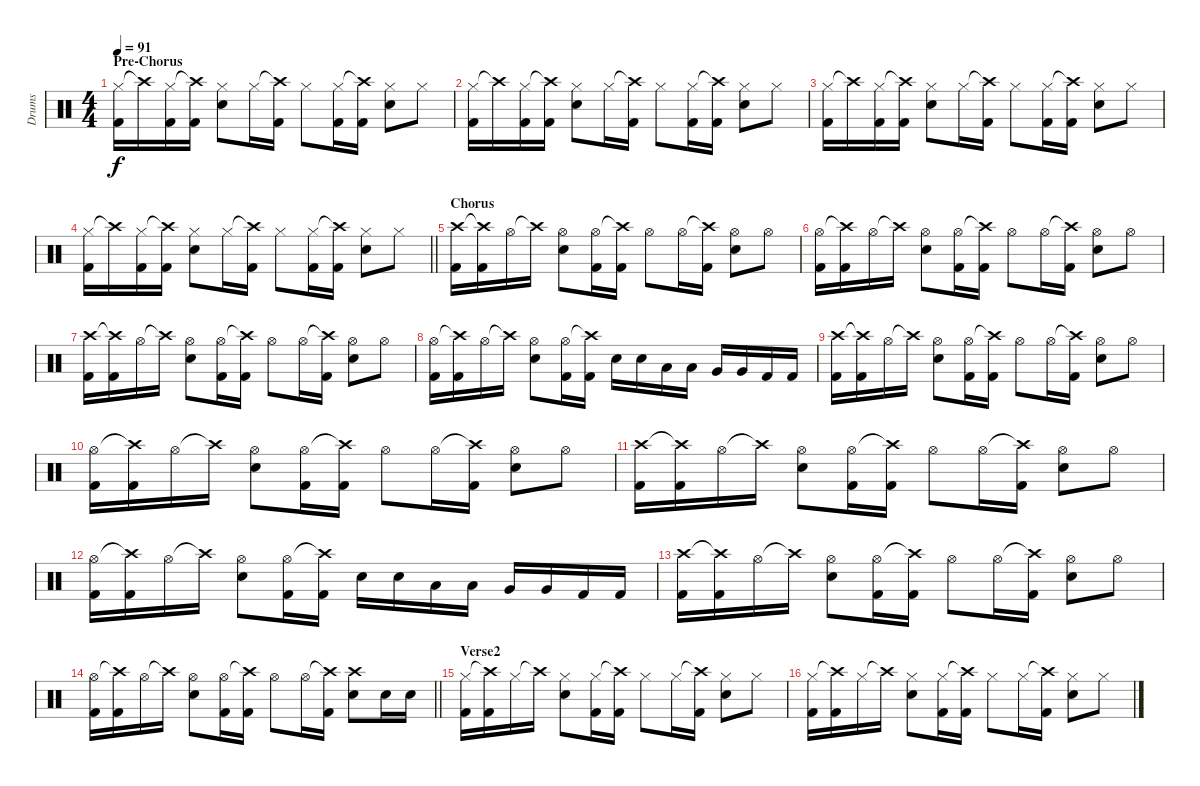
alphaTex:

\track ("Drums" "Drums") {instrument percussion}
\staff {score}
\articulation defaults
\ts (4 4)
\section ("" "Pre-Chorus")
\tempo 91
\clef neutral
\ks c
("Hi-Hat (closed)" "Kick (hit) 2").16{dy f} "Crash high (hit)"{t}.16 ("Hi-Hat (closed)" "Kick (hit) 2").16 ("Crash high (hit)"{t} "Kick (hit) 2").16 ("Hi-Hat (closed)" "Electric Snare (hit)").8 "Hi-Hat (closed)".16 ("Crash high (hit)"{t} "Kick (hit) 2").16 "Hi-Hat (closed)".8 ("Hi-Hat (closed)" "Kick (hit) 2").16 ("Crash high (hit)"{t} "Kick (hit) 2").16 ("Hi-Hat (closed)" "Electric Snare (hit)").8 "Hi-Hat (closed)".8 |
("Hi-Hat (closed)" "Kick (hit) 2").16 "Crash high (hit)"{t}.16 ("Hi-Hat (closed)" "Kick (hit) 2").16 ("Crash high (hit)"{t} "Kick (hit) 2").16 ("Hi-Hat (closed)" "Electric Snare (hit)").8 "Hi-Hat (closed)".16 ("Crash high (hit)"{t} "Kick (hit) 2").16 "Hi-Hat (closed)".8 ("Hi-Hat (closed)" "Kick (hit) 2").16 ("Crash high (hit)"{t} "Kick (hit) 2").16 ("Hi-Hat (closed)" "Electric Snare (hit)").8 "Hi-Hat (closed)".8 |
("Hi-Hat (closed)" "Kick (hit) 2").16 "Crash high (hit)"{t}.16 ("Hi-Hat (closed)" "Kick (hit) 2").16 ("Crash high (hit)"{t} "Kick (hit) 2").16 ("Hi-Hat (closed)" "Electric Snare (hit)").8 "Hi-Hat (closed)".16 ("Crash high (hit)"{t} "Kick (hit) 2").16 "Hi-Hat (closed)".8 ("Hi-Hat (closed)" "Kick (hit) 2").16 ("Crash high (hit)"{t} "Kick (hit) 2").16 ("Hi-Hat (closed)" "Electric Snare (hit)").8 "Hi-Hat (closed)".8 |
\barLineRight lightlight
("Hi-Hat (closed)" "Kick (hit) 2").16 "Crash high (hit)"{t}.16 ("Hi-Hat (closed)" "Kick (hit) 2").16 ("Crash high (hit)"{t} "Kick (hit) 2").16 ("Hi-Hat (closed)" "Electric Snare (hit)").8 "Hi-Hat (closed)".16 ("Crash high (hit)"{t} "Kick (hit) 2").16 "Hi-Hat (closed)".8 ("Hi-Hat (closed)" "Kick (hit) 2").16 ("Crash high (hit)"{t} "Kick (hit) 2").16 ("Hi-Hat (closed)" "Electric Snare (hit)").8 "Hi-Hat (closed)".8 |
\section ("" "Chorus")
("Crash high (hit)" "Kick (hit) 2").16 ("Crash high (hit)"{t} "Kick (hit) 2").16 "Hi-Hat (open)".16 "Crash high (hit)"{t}.16 ("Hi-Hat (open)" "Electric Snare (hit)").8 ("Hi-Hat (open)" "Kick (hit) 2").16 ("Crash high (hit)"{t} "Kick (hit) 2").16 "Hi-Hat (open)".8 "Hi-Hat (open)".16 ("Crash high (hit)"{t} "Kick (hit) 2").16 ("Hi-Hat (open)" "Electric Snare (hit)").8 "Hi-Hat (open)".8 |
("Hi-Hat (open)" "Kick (hit) 2").16 ("Crash high (hit)"{t} "Kick (hit) 2").16 "Hi-Hat (open)".16 "Crash high (hit)"{t}.16 ("Hi-Hat (open)" "Electric Snare (hit)").8 ("Hi-Hat (open)" "Kick (hit) 2").16 ("Crash high (hit)"{t} "Kick (hit) 2").16 "Hi-Hat (open)".8 "Hi-Hat (open)".16 ("Crash high (hit)"{t} "Kick (hit) 2").16 ("Hi-Hat (open)" "Electric Snare (hit)").8 "Hi-Hat (open)".8 |
("Crash high (hit)" "Kick (hit) 2").16 ("Crash high (hit)"{t} "Kick (hit) 2").16 "Hi-Hat (open)".16 "Crash high (hit)"{t}.16 ("Hi-Hat (open)" "Electric Snare (hit)").8 ("Hi-Hat (open)" "Kick (hit) 2").16 ("Crash high (hit)"{t} "Kick (hit) 2").16 "Hi-Hat (open)".8 "Hi-Hat (open)".16 ("Crash high (hit)"{t} "Kick (hit) 2").16 ("Hi-Hat (open)" "Electric Snare (hit)").8 "Hi-Hat (open)".8 |
("Hi-Hat (open)" "Kick (hit) 2").16 ("Crash high (hit)"{t} "Kick (hit) 2").16 "Hi-Hat (open)".16 "Crash high (hit)"{t}.16 ("Hi-Hat (open)" "Electric Snare (hit)").8 ("Hi-Hat (open)" "Kick (hit) 2").16 ("Crash high (hit)"{t} "Kick (hit) 2").16 "Electric Snare (hit)".16 "Electric Snare (hit)".16 "Low Tom (hit)".16 "Low Tom (hit)".16 "Very Low Tom (hit)".16 "Very Low Tom (hit)".16 "Kick (hit) 2".16 "Kick (hit) 2".16 |
("Crash high (hit)" "Kick (hit) 2").16 ("Crash high (hit)"{t} "Kick (hit) 2").16 "Hi-Hat (open)".16 "Crash high (hit)"{t}.16 ("Hi-Hat (open)" "Electric Snare (hit)").8 ("Hi-Hat (open)" "Kick (hit) 2").16 ("Crash high (hit)"{t} "Kick (hit) 2").16 "Hi-Hat (open)".8 "Hi-Hat (open)".16 ("Crash high (hit)"{t} "Kick (hit) 2").16 ("Hi-Hat (open)" "Electric Snare (hit)").8 "Hi-Hat (open)".8 |
("Hi-Hat (open)" "Kick (hit) 2").16 ("Crash high (hit)"{t} "Kick (hit) 2").16 "Hi-Hat (open)".16 "Crash high (hit)"{t}.16 ("Hi-Hat (open)" "Electric Snare (hit)").8 ("Hi-Hat (open)" "Kick (hit) 2").16 ("Crash high (hit)"{t} "Kick (hit) 2").16 "Hi-Hat (open)".8 "Hi-Hat (open)".16 ("Crash high (hit)"{t} "Kick (hit) 2").16 ("Hi-Hat (open)" "Electric Snare (hit)").8 "Hi-Hat (open)".8 |
("Crash high (hit)" "Kick (hit) 2").16 ("Crash high (hit)"{t} "Kick (hit) 2").16 "Hi-Hat (open)".16 "Crash high (hit)"{t}.16 ("Hi-Hat (open)" "Electric Snare (hit)").8 ("Hi-Hat (open)" "Kick (hit) 2").16 ("Crash high (hit)"{t} "Kick (hit) 2").16 "Hi-Hat (open)".8 "Hi-Hat (open)".16 ("Crash high (hit)"{t} "Kick (hit) 2").16 ("Hi-Hat (open)" "Electric Snare (hit)").8 "Hi-Hat (open)".8 |
("Hi-Hat (open)" "Kick (hit) 2").16 ("Crash high (hit)"{t} "Kick (hit) 2").16 "Hi-Hat (open)".16 "Crash high (hit)"{t}.16 ("Hi-Hat (open)" "Electric Snare (hit)").8 ("Hi-Hat (open)" "Kick (hit) 2").16 ("Crash high (hit)"{t} "Kick (hit) 2").16 "Electric Snare (hit)".16 "Electric Snare (hit)".16 "Low Tom (hit)".16 "Low Tom (hit)".16 "Very Low Tom (hit)".16 "Very Low Tom (hit)".16 "Kick (hit) 2".16 "Kick (hit) 2".16 |
("Crash high (hit)" "Kick (hit) 2").16 ("Crash high (hit)"{t} "Kick (hit) 2").16 "Hi-Hat (open)".16 "Crash high (hit)"{t}.16 ("Hi-Hat (open)" "Electric Snare (hit)").8 ("Hi-Hat (open)" "Kick (hit) 2").16 ("Crash high (hit)"{t} "Kick (hit) 2").16 "Hi-Hat (open)".8 "Hi-Hat (open)".16 ("Crash high (hit)"{t} "Kick (hit) 2").16 ("Hi-Hat (open)" "Electric Snare (hit)").8 "Hi-Hat (open)".8 |
\barLineRight lightlight
("Hi-Hat (open)" "Kick (hit) 2").16 ("Crash high (hit)"{t} "Kick (hit) 2").16 "Hi-Hat (open)".16 "Crash high (hit)"{t}.16 ("Hi-Hat (open)" "Electric Snare (hit)").8 ("Hi-Hat (open)" "Kick (hit) 2").16 ("Crash high (hit)"{t} "Kick (hit) 2").16 "Hi-Hat (open)".8 "Hi-Hat (open)".16 ("Crash high (hit)"{t} "Kick (hit) 2").16 ("Crash high (hit)" "Electric Snare (hit)").8 "Electric Snare (hit)".16 "Electric Snare (hit)".16 |
\section ("" "Verse2")
("Hi-Hat (closed)" "Kick (hit) 2").16 ("Crash high (hit)"{t} "Kick (hit) 2").16 "Hi-Hat (closed)".16 "Crash high (hit)"{t}.16 ("Hi-Hat (closed)" "Electric Snare (hit)").8 ("Hi-Hat (closed)" "Kick (hit) 2").16 ("Crash high (hit)"{t} "Kick (hit) 2").16 "Hi-Hat (closed)".8 "Hi-Hat (closed)".16 ("Crash high (hit)"{t} "Kick (hit) 2").16 ("Hi-Hat (closed)" "Electric Snare (hit)").8 "Hi-Hat (closed)".8 |
("Hi-Hat (closed)" "Kick (hit) 2").16 ("Crash high (hit)"{t} "Kick (hit) 2").16 "Hi-Hat (closed)".16 "Crash high (hit)"{t}.16 ("Hi-Hat (closed)" "Electric Snare (hit)").8 ("Hi-Hat (closed)" "Kick (hit) 2").16 ("Crash high (hit)"{t} "Kick (hit) 2").16 "Hi-Hat (closed)".8 "Hi-Hat (closed)".16 ("Crash high (hit)"{t} "Kick (hit) 2").16 ("Hi-Hat (closed)" "Electric Snare (hit)").8 "Hi-Hat (closed)".8
